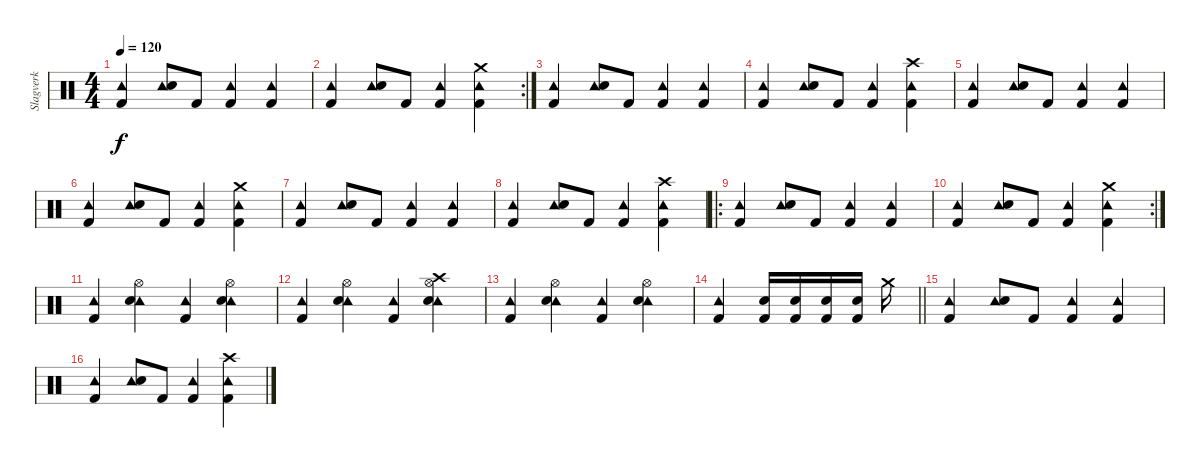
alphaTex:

\track ("Slagverk" "Slagverk") {instrument percussion}
\staff {score}
\articulation defaults
\ts (4 4)
\tempo 120
\clef neutral
\ks c
("Tambourine (hit)" "Kick (hit) 2").4{dy f} ("Tambourine (hit)" "Snare (hit) 2").8 "Kick (hit) 2".8 ("Tambourine (hit)" "Kick (hit) 2").4 ("Tambourine (hit)" "Kick (hit) 2").4 |
\rc 2
("Tambourine (hit)" "Kick (hit) 2").4 ("Tambourine (hit)" "Snare (hit) 2").8 "Kick (hit) 2".8 ("Tambourine (hit)" "Kick (hit) 2").4 ("Crash medium (hit)" "Tambourine (hit)" "Kick (hit) 2").4 |
("Tambourine (hit)" "Kick (hit) 2").4 ("Tambourine (hit)" "Snare (hit) 2").8 "Kick (hit) 2".8 ("Tambourine (hit)" "Kick (hit) 2").4 ("Tambourine (hit)" "Kick (hit) 2").4 |
("Tambourine (hit)" "Kick (hit) 2").4 ("Tambourine (hit)" "Snare (hit) 2").8 "Kick (hit) 2".8 ("Tambourine (hit)" "Kick (hit) 2").4 ("Crash high (hit)" "Tambourine (hit)" "Kick (hit) 2").4 |
("Tambourine (hit)" "Kick (hit) 2").4 ("Tambourine (hit)" "Snare (hit) 2").8 "Kick (hit) 2".8 ("Tambourine (hit)" "Kick (hit) 2").4 ("Tambourine (hit)" "Kick (hit) 2").4 |
("Tambourine (hit)" "Kick (hit) 2").4 ("Tambourine (hit)" "Snare (hit) 2").8 "Kick (hit) 2".8 ("Tambourine (hit)" "Kick (hit) 2").4 ("Crash medium (hit)" "Tambourine (hit)" "Kick (hit) 2").4 |
("Tambourine (hit)" "Kick (hit) 2").4 ("Tambourine (hit)" "Snare (hit) 2").8 "Kick (hit) 2".8 ("Tambourine (hit)" "Kick (hit) 2").4 ("Tambourine (hit)" "Kick (hit) 2").4 |
("Tambourine (hit)" "Kick (hit) 2").4 ("Tambourine (hit)" "Snare (hit) 2").8 "Kick (hit) 2".8 ("Tambourine (hit)" "Kick (hit) 2").4 ("Crash high (hit)" "Tambourine (hit)" "Kick (hit) 2").4 |
\ro
("Tambourine (hit)" "Kick (hit) 2").4 ("Tambourine (hit)" "Snare (hit) 2").8 "Kick (hit) 2".8 ("Tambourine (hit)" "Kick (hit) 2").4 ("Tambourine (hit)" "Kick (hit) 2").4 |
\rc 2
("Tambourine (hit)" "Kick (hit) 2").4 ("Tambourine (hit)" "Snare (hit) 2").8 "Kick (hit) 2".8 ("Tambourine (hit)" "Kick (hit) 2").4 ("Crash medium (hit)" "Tambourine (hit)" "Kick (hit) 2").4 |
("Tambourine (hit)" "Kick (hit) 2").4 ("Tambourine (hit)" "Hi-Hat (open)" "Snare (hit) 2").4 ("Tambourine (hit)" "Kick (hit) 2").4 ("Tambourine (hit)" "Hi-Hat (open)" "Snare (hit) 2").4 |
("Tambourine (hit)" "Kick (hit) 2").4 ("Tambourine (hit)" "Hi-Hat (open)" "Snare (hit) 2").4 ("Tambourine (hit)" "Kick (hit) 2").4 ("Tambourine (hit)" "Crash high (hit)" "Hi-Hat (open)" "Snare (hit) 2").4 |
("Tambourine (hit)" "Kick (hit) 2").4 ("Tambourine (hit)" "Hi-Hat (open)" "Snare (hit) 2").4 ("Tambourine (hit)" "Kick (hit) 2").4 ("Tambourine (hit)" "Hi-Hat (open)" "Snare (hit) 2").4 |
\barLineRight lightlight
("Tambourine (hit)" "Kick (hit) 2").4 ("Electric Snare (hit)" "Kick (hit) 2").16 ("Electric Snare (hit)" "Kick (hit) 2").16 ("Electric Snare (hit)" "Kick (hit) 2").16 ("Electric Snare (hit)" "Kick (hit) 2").16 "Crash medium (hit)".16 |
("Tambourine (hit)" "Kick (hit) 2").4 ("Tambourine (hit)" "Snare (hit) 2").8 "Kick (hit) 2".8 ("Tambourine (hit)" "Kick (hit) 2").4 ("Tambourine (hit)" "Kick (hit) 2").4 |
("Tambourine (hit)" "Kick (hit) 2").4 ("Tambourine (hit)" "Snare (hit) 2").8 "Kick (hit) 2".8 ("Tambourine (hit)" "Kick (hit) 2").4 ("Crash high (hit)" "Tambourine (hit)" "Kick (hit) 2").4
